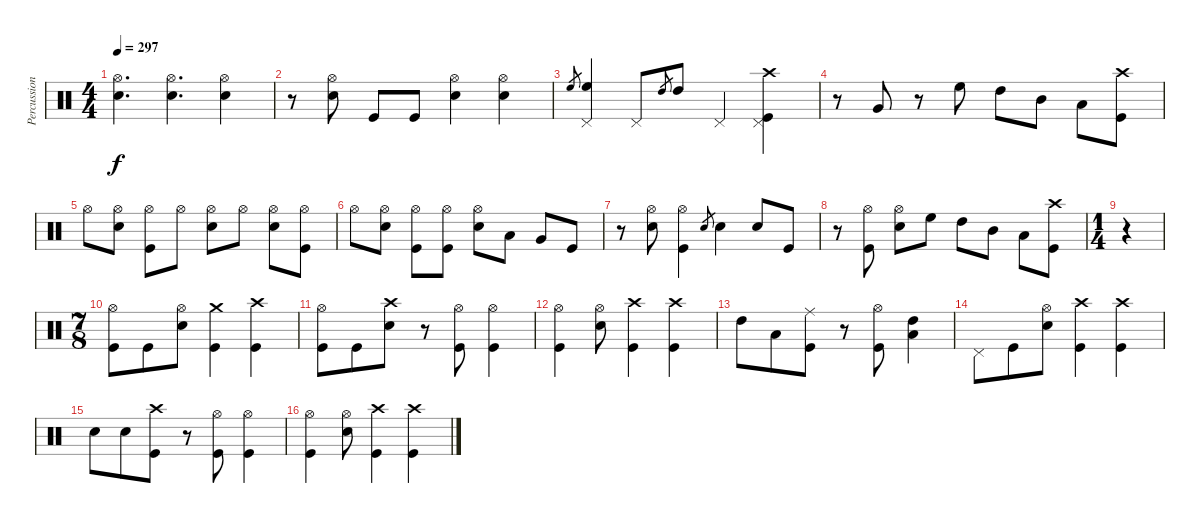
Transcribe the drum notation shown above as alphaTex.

\track ("Percussioni" "Percussion") {instrument percussion}
\staff {score}
\articulation defaults
\ts (4 4)
\tempo 297
\clef neutral
\ks c
("Hi-Hat (open)" "Snare (hit) 2").4{d dy f} ("Hi-Hat (open)" "Snare (hit) 2").4{d} ("Hi-Hat (open)" "Snare (hit) 2").4 |
r.8 ("Hi-Hat (open)" "Snare (hit) 2").8 "Kick (hit)".8 "Kick (hit)".8 ("Hi-Hat (open)" "Snare (hit) 2").4 ("Hi-Hat (open)" "Snare (hit) 2").4 |
"High Floor Tom (hit)".8{gr} ("High Floor Tom (hit)" "Pedal Hi-Hat (hit)").4 "Pedal Hi-Hat (hit)".8 "High Tom (hit)".8{gr} "High Tom (hit)".8 "Pedal Hi-Hat (hit)".4 ("Kick (hit)" "Crash high (hit)" "Pedal Hi-Hat (hit)").4 |
r.8 "Very Low Tom (hit)".8 r.8 "High Floor Tom (hit)".8 "High Tom (hit)".8 "Mid Tom (hit)".8 "Low Tom (hit)".8 ("Kick (hit)" "Crash high (hit)").8 |
"Hi-Hat (open)".8 ("Hi-Hat (open)" "Snare (hit) 2").8 ("Kick (hit)" "Hi-Hat (open)").8 "Hi-Hat (open)".8 ("Snare (hit) 2" "Hi-Hat (open)").8 "Hi-Hat (open)".8 ("Snare (hit) 2" "Hi-Hat (open)").8 ("Kick (hit)" "Hi-Hat (open)").8 |
"Hi-Hat (open)".8 ("Hi-Hat (open)" "Snare (hit) 2").8 ("Hi-Hat (open)" "Kick (hit)").8 ("Hi-Hat (open)" "Kick (hit)").8 ("Hi-Hat (open)" "Snare (hit) 2").8 "Low Tom (hit)".8 "Very Low Tom (hit)".8 "Kick (hit)".8 |
r.8 ("Hi-Hat (open)" "Snare (hit) 2").8 ("Hi-Hat (open)" "Kick (hit)").4 "Snare (hit) 2".8{gr} "Snare (hit) 2".4 "Snare (hit) 2".8 "Kick (hit)".8 |
r.8 ("Hi-Hat (open)" "Kick (hit)").8 ("Hi-Hat (open)" "Snare (hit) 2").8 "High Floor Tom (hit)".8 "High Tom (hit)".8 "Mid Tom (hit)".8 "Low Tom (hit)".8 ("Crash high (hit)" "Kick (hit)").8 |
\ts (1 4)
r.4 |
\ts (7 8)
("Hi-Hat (open)" "Kick (hit)").8 "Kick (hit)".8 ("Snare (hit) 2" "Hi-Hat (open)").8 ("Kick (hit)" "Crash medium (hit)").4 ("Kick (hit)" "Crash high (hit)").4 |
("Hi-Hat (open)" "Kick (hit)").8 "Kick (hit)".8 ("Crash high (hit)" "Snare (hit) 2").8 r.8 ("Hi-Hat (open)" "Kick (hit)").8 ("Hi-Hat (open)" "Kick (hit)").4 |
("Kick (hit)" "Hi-Hat (open)").4 ("Hi-Hat (open)" "Snare (hit) 2").8 ("Kick (hit)" "Crash high (hit)").4 ("Crash high (hit)" "Kick (hit)").4 |
"High Tom (hit)".8 "Low Tom (hit)".8 ("Ride (middle)" "Kick (hit)").8 r.8 ("Kick (hit)" "Hi-Hat (open)").8 ("Low Tom (hit)" "High Tom (hit)").4 |
"Pedal Hi-Hat (hit)".8 "Kick (hit)".8 ("Snare (hit) 2" "Hi-Hat (open)").8 ("Kick (hit)" "Crash high (hit)").4 ("Kick (hit)" "Crash high (hit)").4 |
"Snare (hit) 2".8 "Snare (hit) 2".8 ("Kick (hit)" "Crash high (hit)").8 r.8 ("Kick (hit)" "Hi-Hat (open)").8 ("Kick (hit)" "Hi-Hat (open)").4 |
("Kick (hit)" "Hi-Hat (open)").4 ("Hi-Hat (open)" "Snare (hit) 2").8 ("Kick (hit)" "Crash high (hit)").4 ("Crash high (hit)" "Kick (hit)").4
